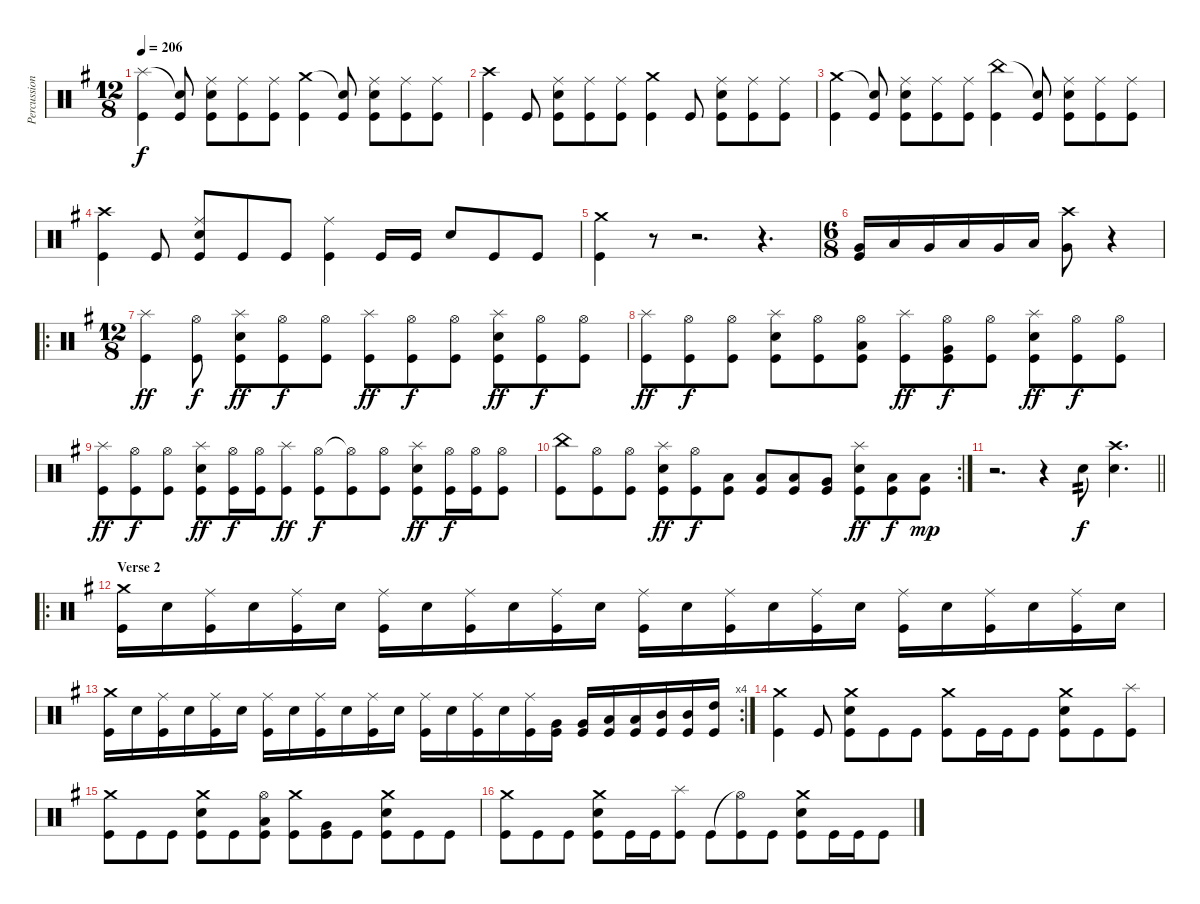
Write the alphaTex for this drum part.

\track ("Percussion" "Percussion") {instrument percussion}
\staff {score}
\articulation defaults
\ts (12 8)
\tempo 206
\clef neutral
\ks g
("Splash (hit)" "Kick (hit)").4{dy f} ("Snare (hit)"{t} "Kick (hit)").8 ("Ride (middle)" "Electric Snare (hit)" "Kick (hit)").8 ("Ride (middle)" "Kick (hit)").8 ("Ride (middle)" "Kick (hit)").8 ("Crash medium (hit)" "Kick (hit)").4 ("Snare (hit)"{t} "Kick (hit)").8 ("Electric Snare (hit)" "Ride (middle)" "Kick (hit)").8 ("Ride (middle)" "Kick (hit)").8 ("Ride (middle)" "Kick (hit)").8 |
("Crash high (hit)" "Kick (hit)").4 "Kick (hit)".8 ("Ride (middle)" "Electric Snare (hit)" "Kick (hit)").8 ("Ride (middle)" "Kick (hit)").8 ("Ride (middle)" "Kick (hit)").8 ("Crash medium (hit)" "Kick (hit)").4 "Kick (hit)".8 ("Ride (middle)" "Electric Snare (hit)" "Kick (hit)").8 ("Ride (middle)" "Kick (hit)").8 ("Ride (middle)" "Kick (hit)").8 |
("Crash medium (hit)" "Kick (hit)").4 ("Snare (hit)"{t} "Kick (hit)").8 ("Electric Snare (hit)" "Ride (middle)" "Kick (hit)").8 ("Ride (middle)" "Kick (hit)").8 ("Ride (middle)" "Kick (hit)").8 ("China (hit)" "Kick (hit)").4 ("Snare (hit)"{t} "Kick (hit)").8 ("Electric Snare (hit)" "Ride (middle)" "Kick (hit)").8 ("Ride (middle)" "Kick (hit)").8 ("Ride (middle)" "Kick (hit)").8 |
("Crash high (hit)" "Kick (hit)").4 "Kick (hit)".8 ("Ride (middle)" "Electric Snare (hit)" "Kick (hit)").8 "Kick (hit)".8 "Kick (hit)".8 ("Ride (middle)" "Kick (hit)").4 "Kick (hit)".16 "Kick (hit)".16 "Electric Snare (hit)".8 "Kick (hit)".8 "Kick (hit)".8 |
("Crash medium (hit)" "Kick (hit)").4 r.8 r.2{d} r.4{d} |
\ts (6 8)
("Very Low Tom (hit)" "Kick (hit)").16 "Low Tom (hit)".16 "Very Low Tom (hit)".16 "Low Tom (hit)".16 "Very Low Tom (hit)".16 "Low Tom (hit)".16 ("Very Low Tom (hit)" "Crash high (hit)").8 r.4 |
\ro
\ts (12 8)
("Splash (hit)" "Kick (hit)").4{dy ff} ("Hi-Hat (open)" "Kick (hit)").8{dy f} ("Splash (hit)" "Electric Snare (hit)" "Kick (hit)").8{dy ff} ("Hi-Hat (open)" "Kick (hit)").8{dy f} ("Hi-Hat (open)" "Kick (hit)").8 ("Splash (hit)" "Kick (hit)").8{dy ff} ("Hi-Hat (open)" "Kick (hit)").8{dy f} ("Hi-Hat (open)" "Kick (hit)").8 ("Splash (hit)" "Electric Snare (hit)" "Kick (hit)").8{dy ff} ("Hi-Hat (open)" "Kick (hit)").8{dy f} ("Hi-Hat (open)" "Kick (hit)").8 |
("Splash (hit)" "Kick (hit)").8{dy ff} ("Hi-Hat (open)" "Kick (hit)").8{dy f} ("Hi-Hat (open)" "Kick (hit)").8 ("Electric Snare (hit)" "Splash (hit)" "Kick (hit)").8 ("Hi-Hat (open)" "Kick (hit)").8 ("Hi-Hat (open)" "Low Tom (hit)" "Kick (hit)").8 ("Splash (hit)" "Kick (hit)").8{dy ff} ("Hi-Hat (open)" "Very Low Tom (hit)" "Kick (hit)").8{dy f} ("Hi-Hat (open)" "Kick (hit)").8 ("Electric Snare (hit)" "Splash (hit)" "Kick (hit)").8{dy ff} ("Hi-Hat (open)" "Kick (hit)").8{dy f} ("Hi-Hat (open)" "Kick (hit)").8 |
("Splash (hit)" "Kick (hit)").8{dy ff} ("Hi-Hat (open)" "Kick (hit)").8{dy f} ("Hi-Hat (open)" "Kick (hit)").8 ("Splash (hit)" "Electric Snare (hit)" "Kick (hit)").8{dy ff} ("Hi-Hat (open)" "Kick (hit)").16{dy f} ("Hi-Hat (open)" "Kick (hit)").16 ("Splash (hit)" "Kick (hit)").8{dy ff} ("Hi-Hat (open)" "Kick (hit)").8{dy f} ("Hi-Hat (open)"{t} "Kick (hit)").8 ("Hi-Hat (open)" "Kick (hit)").8 ("Splash (hit)" "Electric Snare (hit)" "Kick (hit)").8{dy ff} ("Hi-Hat (open)" "Kick (hit)").16{dy f} ("Hi-Hat (open)" "Kick (hit)").16 ("Hi-Hat (open)" "Kick (hit)").8 |
\rc 2
("China (hit)" "Kick (hit)").8 ("Hi-Hat (open)" "Kick (hit)").8 ("Hi-Hat (open)" "Kick (hit)").8 ("Splash (hit)" "Electric Snare (hit)" "Kick (hit)").8{dy ff} ("Kick (hit)" "Hi-Hat (open)").8{dy f} ("Low Tom (hit)" "Kick (hit)").8 ("Low Tom (hit)" "Kick (hit)").8 ("Low Tom (hit)" "Kick (hit)").8 ("Very Low Tom (hit)" "Kick (hit)").8 ("Splash (hit)" "Electric Snare (hit)" "Kick (hit)").8{dy ff} ("Low Floor Tom (hit)" "Kick (hit)").8{dy f} ("Low Floor Tom (hit)" "Kick (hit)").8{dy mp} |
\barLineRight lightlight
r.2{d} r.4 "Electric Snare (hit)".8{tp 2 dy f} ("Crash high (hit)" "Electric Snare (hit)").4{d} |
\ro
\section ("" "Verse 2")
("Kick (hit)" "Crash medium (hit)").16 "Electric Snare (hit)".16 ("Kick (hit)" "Ride (middle)").16 "Electric Snare (hit)".16 ("Kick (hit)" "Ride (middle)").16 "Electric Snare (hit)".16 ("Kick (hit)" "Ride (middle)").16 "Electric Snare (hit)".16 ("Kick (hit)" "Ride (middle)").16 "Electric Snare (hit)".16 ("Kick (hit)" "Ride (middle)").16 "Electric Snare (hit)".16 ("Kick (hit)" "Ride (middle)").16 "Electric Snare (hit)".16 ("Kick (hit)" "Ride (middle)").16 "Electric Snare (hit)".16 ("Kick (hit)" "Ride (middle)").16 "Electric Snare (hit)".16 ("Kick (hit)" "Ride (middle)").16 "Electric Snare (hit)".16 ("Kick (hit)" "Ride (middle)").16 "Electric Snare (hit)".16 ("Kick (hit)" "Ride (middle)").16 "Electric Snare (hit)".16 |
\rc 4
("Kick (hit)" "Crash medium (hit)").16 "Electric Snare (hit)".16 ("Kick (hit)" "Ride (middle)").16 "Electric Snare (hit)".16 ("Kick (hit)" "Ride (middle)").16 "Electric Snare (hit)".16 ("Kick (hit)" "Ride (middle)").16 "Electric Snare (hit)".16 ("Kick (hit)" "Ride (middle)").16 "Electric Snare (hit)".16 ("Kick (hit)" "Ride (middle)").16 "Electric Snare (hit)".16 ("Kick (hit)" "Ride (middle)").16 "Electric Snare (hit)".16 ("Kick (hit)" "Ride (middle)").16 "Electric Snare (hit)".16 ("Kick (hit)" "Ride (middle)").16 ("Kick (hit)" "Very Low Tom (hit)").16 ("Kick (hit)" "Very Low Tom (hit)").16 ("Kick (hit)" "Low Tom (hit)").16 ("Kick (hit)" "Low Tom (hit)").16 ("Kick (hit)" "Mid Tom (hit)").16 ("Kick (hit)" "Mid Tom (hit)").16 ("Kick (hit)" "High Tom (hit)").16 |
("Crash medium (hit)" "Kick (hit)").4 "Kick (hit)".8 ("Crash medium (hit)" "Electric Snare (hit)" "Kick (hit)").8 "Kick (hit)".8 "Kick (hit)".8 ("Crash medium (hit)" "Kick (hit)").8 "Kick (hit)".16 "Kick (hit)".16 "Kick (hit)".8 ("Crash medium (hit)" "Electric Snare (hit)" "Kick (hit)").8 "Kick (hit)".8 ("Splash (hit)" "Kick (hit)").8 |
("Crash medium (hit)" "Kick (hit)").8 "Kick (hit)".8 "Kick (hit)".8 ("Electric Snare (hit)" "Crash medium (hit)" "Kick (hit)").8 "Kick (hit)".8 ("Hi-Hat (open)" "Low Tom (hit)" "Kick (hit)").8 ("Crash medium (hit)" "Kick (hit)").8 ("Very Low Tom (hit)" "Kick (hit)").8 "Kick (hit)".8 ("Electric Snare (hit)" "Crash medium (hit)" "Kick (hit)").8 "Kick (hit)".8 "Kick (hit)".8 |
("Crash medium (hit)" "Kick (hit)").8 "Kick (hit)".8 "Kick (hit)".8 ("Crash medium (hit)" "Electric Snare (hit)" "Kick (hit)").8 "Kick (hit)".16 "Kick (hit)".16 ("Splash (hit)" "Kick (hit)").8 "Kick (hit)".8 ("Hi-Hat (open)"{t} "Kick (hit)").8 "Kick (hit)".8 ("Crash medium (hit)" "Electric Snare (hit)" "Kick (hit)").8 "Kick (hit)".16 "Kick (hit)".16 "Kick (hit)".8
